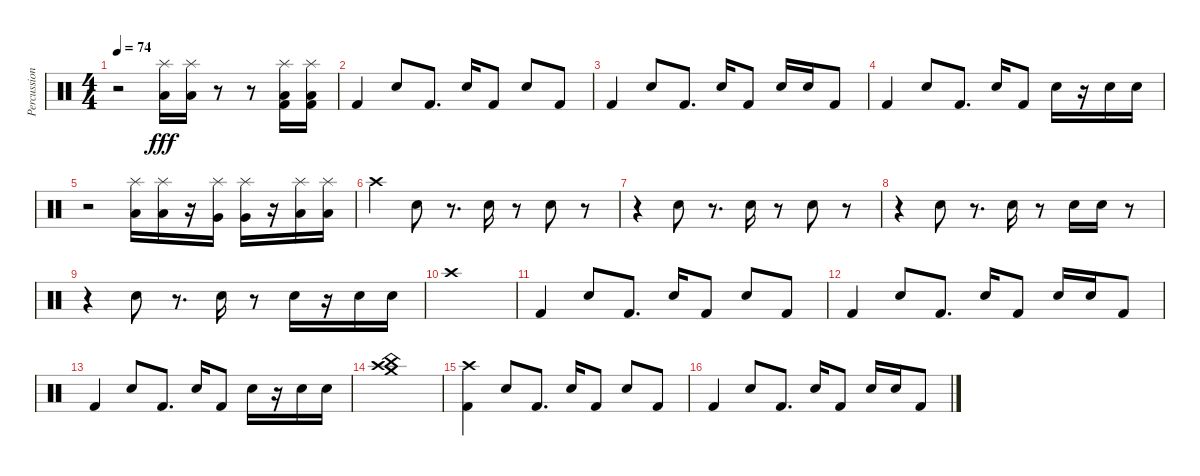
\track ("Percussion" "Percussion") {instrument percussion}
\staff {score}
\articulation defaults
\ts (4 4)
\tempo 74
\clef neutral
\ks c
r.2{dy fff} ("Splash (hit)" "Low Tom (hit)").16 ("Splash (hit)" "Low Tom (hit)").16 r.8 r.8 ("Splash (hit)" "Low Floor Tom (hit)" "Kick (hit) 2").16 ("Splash (hit)" "Low Floor Tom (hit)" "Kick (hit) 2").16 |
"Kick (hit) 2".4 "Electric Snare (hit)".8 "Kick (hit) 2".8{d} "Electric Snare (hit)".16 "Kick (hit) 2".8 "Electric Snare (hit)".8 "Kick (hit) 2".8 |
"Kick (hit) 2".4 "Electric Snare (hit)".8 "Kick (hit) 2".8{d} "Electric Snare (hit)".16 "Kick (hit) 2".8 "Electric Snare (hit)".16 "Electric Snare (hit)".16 "Kick (hit) 2".8 |
"Kick (hit) 2".4 "Electric Snare (hit)".8 "Kick (hit) 2".8{d} "Electric Snare (hit)".16 "Kick (hit) 2".8 "Electric Snare (hit)".16 r.16 "Electric Snare (hit)".16 "Electric Snare (hit)".16 |
r.2 ("Splash (hit)" "Low Tom (hit)").16 ("Splash (hit)" "Low Tom (hit)").16 r.16 ("Splash (hit)" "Very Low Tom (hit)").16 ("Splash (hit)" "Very Low Tom (hit)").16 r.16 ("Splash (hit)" "Low Floor Tom (hit)").16 ("Splash (hit)" "Low Floor Tom (hit)").16 |
"Crash high (hit)".4 "Electric Snare (hit)".8 r.8{d} "Electric Snare (hit)".16 r.8 "Electric Snare (hit)".8 r.8 |
r.4 "Electric Snare (hit)".8 r.8{d} "Electric Snare (hit)".16 r.8 "Electric Snare (hit)".8 r.8 |
r.4 "Electric Snare (hit)".8 r.8{d} "Electric Snare (hit)".16 r.8 "Electric Snare (hit)".16 "Electric Snare (hit)".16 r.8 |
r.4 "Electric Snare (hit)".8 r.8{d} "Electric Snare (hit)".16 r.8 "Electric Snare (hit)".16 r.16 "Electric Snare (hit)".16 "Electric Snare (hit)".16 |
"Crash high (hit)".1 |
"Kick (hit) 2".4 "Electric Snare (hit)".8 "Kick (hit) 2".8{d} "Electric Snare (hit)".16 "Kick (hit) 2".8 "Electric Snare (hit)".8 "Kick (hit) 2".8 |
"Kick (hit) 2".4 "Electric Snare (hit)".8 "Kick (hit) 2".8{d} "Electric Snare (hit)".16 "Kick (hit) 2".8 "Electric Snare (hit)".16 "Electric Snare (hit)".16 "Kick (hit) 2".8 |
"Kick (hit) 2".4 "Electric Snare (hit)".8 "Kick (hit) 2".8{d} "Electric Snare (hit)".16 "Kick (hit) 2".8 "Electric Snare (hit)".16 r.16 "Electric Snare (hit)".16 "Electric Snare (hit)".16 |
("China (hit)" "Crash high (hit)" "Crash medium (hit)").1 |
("Crash high (hit)" "Kick (hit) 2").4 "Electric Snare (hit)".8 "Kick (hit) 2".8{d} "Electric Snare (hit)".16 "Kick (hit) 2".8 "Electric Snare (hit)".8 "Kick (hit) 2".8 |
"Kick (hit) 2".4 "Electric Snare (hit)".8 "Kick (hit) 2".8{d} "Electric Snare (hit)".16 "Kick (hit) 2".8 "Electric Snare (hit)".16 "Electric Snare (hit)".16 "Kick (hit) 2".8
